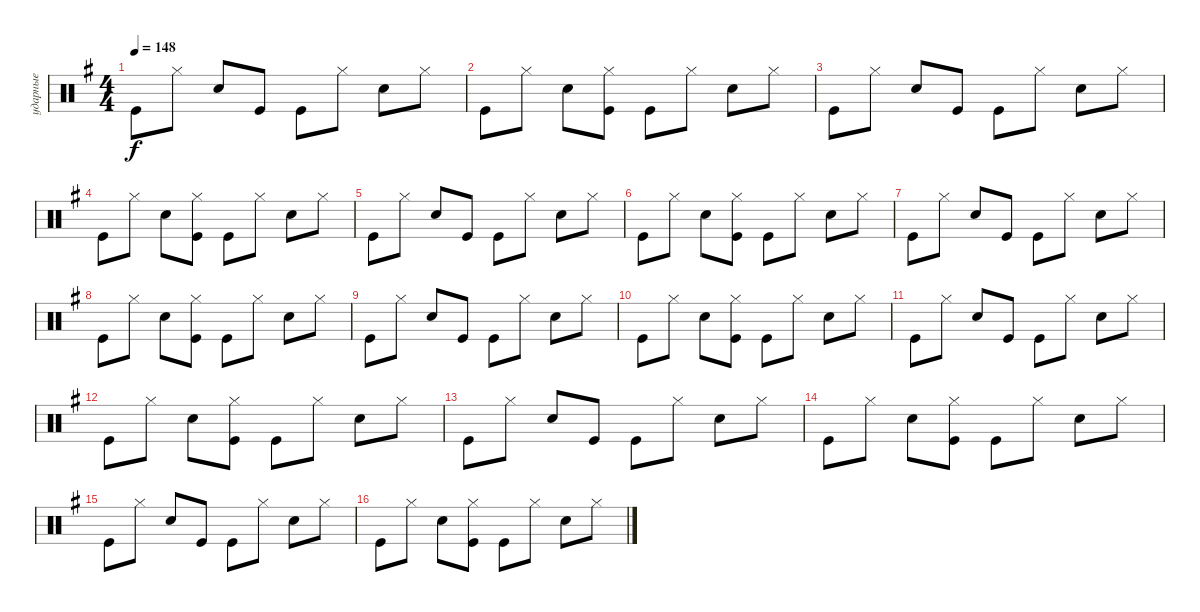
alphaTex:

\track ("ударные" "ударные") {instrument percussion}
\staff {score}
\articulation defaults
\ts (4 4)
\tempo 148
\clef neutral
\ks g "Kick (hit)".8{dy f} "Hi-Hat (closed)".8 "Snare (hit) 2".8 "Kick (hit)".8 "Kick (hit)".8 "Hi-Hat (closed)".8 "Snare (hit) 2".8 "Hi-Hat (closed)".8
|
"Kick (hit)".8 "Hi-Hat (closed)".8 "Snare (hit) 2".8 ("Kick (hit)" "Hi-Hat (closed)").8 "Kick (hit)".8 "Hi-Hat (closed)".8 "Snare (hit) 2".8 "Hi-Hat (closed)".8 |
"Kick (hit)".8 "Hi-Hat (closed)".8 "Snare (hit) 2".8 "Kick (hit)".8 "Kick (hit)".8 "Hi-Hat (closed)".8 "Snare (hit) 2".8 "Hi-Hat (closed)".8 |
"Kick (hit)".8 "Hi-Hat (closed)".8 "Snare (hit) 2".8 ("Kick (hit)" "Hi-Hat (closed)").8 "Kick (hit)".8 "Hi-Hat (closed)".8 "Snare (hit) 2".8 "Hi-Hat (closed)".8 |
"Kick (hit)".8 "Hi-Hat (closed)".8 "Snare (hit) 2".8 "Kick (hit)".8 "Kick (hit)".8 "Hi-Hat (closed)".8 "Snare (hit) 2".8 "Hi-Hat (closed)".8 |
"Kick (hit)".8 "Hi-Hat (closed)".8 "Snare (hit) 2".8 ("Kick (hit)" "Hi-Hat (closed)").8 "Kick (hit)".8 "Hi-Hat (closed)".8 "Snare (hit) 2".8 "Hi-Hat (closed)".8 |
"Kick (hit)".8 "Hi-Hat (closed)".8 "Snare (hit) 2".8 "Kick (hit)".8 "Kick (hit)".8 "Hi-Hat (closed)".8 "Snare (hit) 2".8 "Hi-Hat (closed)".8 |
"Kick (hit)".8 "Hi-Hat (closed)".8 "Snare (hit) 2".8 ("Kick (hit)" "Hi-Hat (closed)").8 "Kick (hit)".8 "Hi-Hat (closed)".8 "Snare (hit) 2".8 "Hi-Hat (closed)".8 |
"Kick (hit)".8 "Hi-Hat (closed)".8 "Snare (hit) 2".8 "Kick (hit)".8 "Kick (hit)".8 "Hi-Hat (closed)".8 "Snare (hit) 2".8 "Hi-Hat (closed)".8 |
"Kick (hit)".8 "Hi-Hat (closed)".8 "Snare (hit) 2".8 ("Kick (hit)" "Hi-Hat (closed)").8 "Kick (hit)".8 "Hi-Hat (closed)".8 "Snare (hit) 2".8 "Hi-Hat (closed)".8 |
"Kick (hit)".8 "Hi-Hat (closed)".8 "Snare (hit) 2".8 "Kick (hit)".8 "Kick (hit)".8 "Hi-Hat (closed)".8 "Snare (hit) 2".8 "Hi-Hat (closed)".8 |
"Kick (hit)".8 "Hi-Hat (closed)".8 "Snare (hit) 2".8 ("Kick (hit)" "Hi-Hat (closed)").8 "Kick (hit)".8 "Hi-Hat (closed)".8 "Snare (hit) 2".8 "Hi-Hat (closed)".8 |
"Kick (hit)".8 "Hi-Hat (closed)".8 "Snare (hit) 2".8 "Kick (hit)".8 "Kick (hit)".8 "Hi-Hat (closed)".8 "Snare (hit) 2".8 "Hi-Hat (closed)".8 |
"Kick (hit)".8 "Hi-Hat (closed)".8 "Snare (hit) 2".8 ("Kick (hit)" "Hi-Hat (closed)").8 "Kick (hit)".8 "Hi-Hat (closed)".8 "Snare (hit) 2".8 "Hi-Hat (closed)".8 |
"Kick (hit)".8 "Hi-Hat (closed)".8 "Snare (hit) 2".8 "Kick (hit)".8 "Kick (hit)".8 "Hi-Hat (closed)".8 "Snare (hit) 2".8 "Hi-Hat (closed)".8 |
"Kick (hit)".8 "Hi-Hat (closed)".8 "Snare (hit) 2".8 ("Kick (hit)" "Hi-Hat (closed)").8 "Kick (hit)".8 "Hi-Hat (closed)".8 "Snare (hit) 2".8 "Hi-Hat (closed)".8
